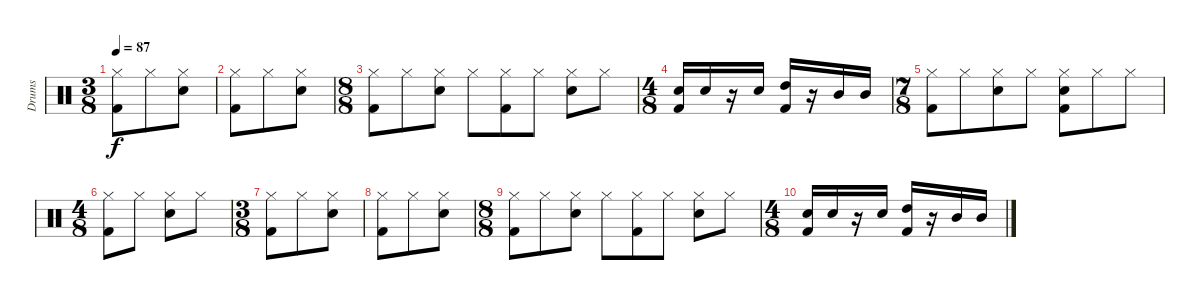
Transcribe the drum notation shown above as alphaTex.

\track ("Drums" "Drums") {instrument percussion}
\staff {score}
\articulation defaults
\ts (3 8)
\tempo 87
\clef neutral
\ks c
("Hi-Hat (closed)" "Kick (hit) 2").8{dy f} "Hi-Hat (closed)".8 ("Hi-Hat (closed)" "Snare (hit) 2").8 |
("Hi-Hat (closed)" "Kick (hit) 2").8 "Hi-Hat (closed)".8 ("Hi-Hat (closed)" "Snare (hit) 2").8 |
\ts (8 8)
("Hi-Hat (closed)" "Kick (hit) 2").8 "Hi-Hat (closed)".8 ("Hi-Hat (closed)" "Snare (hit) 2").8 "Hi-Hat (closed)".8 ("Hi-Hat (closed)" "Kick (hit) 2").8 "Hi-Hat (closed)".8 ("Hi-Hat (closed)" "Snare (hit) 2").8 "Hi-Hat (closed)".8 |
\ts (4 8)
("Snare (hit) 2" "Kick (hit) 2").16 "Snare (hit) 2".16 r.16 "Snare (hit) 2".16 ("High Tom (hit)" "Kick (hit) 2").16 r.16 "Mid Tom (hit)".16 "Mid Tom (hit)".16 |
\ts (7 8)
("Hi-Hat (closed)" "Kick (hit) 2").8 "Hi-Hat (closed)".8 ("Hi-Hat (closed)" "Snare (hit) 2").8 "Hi-Hat (closed)".8 ("Hi-Hat (closed)" "Kick (hit) 2" "Snare (hit) 2").8 "Hi-Hat (closed)".8 "Hi-Hat (closed)".8 |
\ts (4 8)
("Hi-Hat (closed)" "Kick (hit) 2").8 "Hi-Hat (closed)".8 ("Hi-Hat (closed)" "Snare (hit) 2").8 "Hi-Hat (closed)".8 |
\ts (3 8)
("Hi-Hat (closed)" "Kick (hit) 2").8 "Hi-Hat (closed)".8 ("Hi-Hat (closed)" "Snare (hit) 2").8 |
("Hi-Hat (closed)" "Kick (hit) 2").8 "Hi-Hat (closed)".8 ("Hi-Hat (closed)" "Snare (hit) 2").8 |
\ts (8 8)
("Hi-Hat (closed)" "Kick (hit) 2").8 "Hi-Hat (closed)".8 ("Hi-Hat (closed)" "Snare (hit) 2").8 "Hi-Hat (closed)".8 ("Hi-Hat (closed)" "Kick (hit) 2").8 "Hi-Hat (closed)".8 ("Hi-Hat (closed)" "Snare (hit) 2").8 "Hi-Hat (closed)".8 |
\ts (4 8)
("Snare (hit) 2" "Kick (hit) 2").16 "Snare (hit) 2".16 r.16 "Snare (hit) 2".16 ("High Tom (hit)" "Kick (hit) 2").16 r.16 "Mid Tom (hit)".16 "Mid Tom (hit)".16
